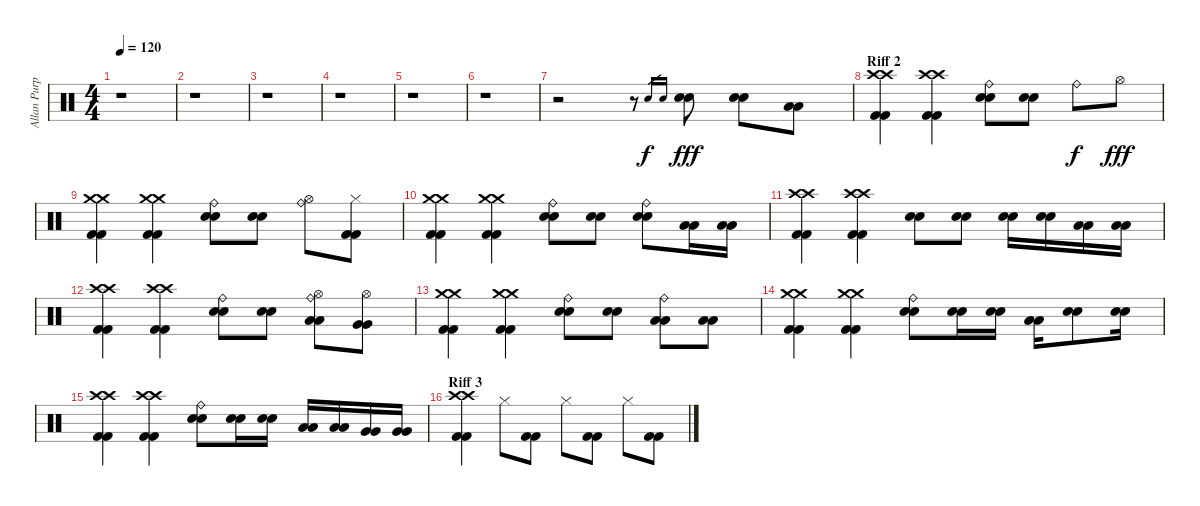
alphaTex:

\track ("Allan Purple" "Allan Purp") {instrument percussion}
\staff {score}
\articulation defaults
\ts (4 4)
\tempo 120
\clef neutral
\ks c
r.1{dy f} |
r.1 |
r.1 |
r.1 |
r.1 |
r.1 |
r.2 r.8 "Electric Snare (hit)".16{gr} "Electric Snare (hit)".16{gr} ("Electric Snare (hit)" "Electric Snare (hit)").8{dy fff} ("Snare (hit) 2" "Snare (hit) 2").8 ("Low Tom (hit)" "Low Tom (hit)").8 |
\section ("" "Riff 2")
("Crash high (hit)" "Crash high (hit)" "Kick (hit) 2" "Kick (hit) 2").4 ("Crash high (hit)" "Crash high (hit)" "Kick (hit) 2" "Kick (hit) 2").4 ("Ride (bell)" "Electric Snare (hit)" "Electric Snare (hit)").8 ("Electric Snare (hit)" "Electric Snare (hit)").8 "Ride (bell)".8{dy f} "Hi-Hat (open)".8{dy fff} |
("Crash medium (hit)" "Crash medium (hit)" "Kick (hit) 2" "Kick (hit) 2").4 ("Crash medium (hit)" "Crash medium (hit)" "Kick (hit) 2" "Kick (hit) 2").4 ("Ride (bell)" "Electric Snare (hit)" "Electric Snare (hit)").8 ("Electric Snare (hit)" "Electric Snare (hit)").8 ("Ride (bell)" "Hi-Hat (open)").8 ("Hi-Hat (closed)" "Kick (hit) 2" "Kick (hit) 2").8 |
("Crash medium (hit)" "Crash medium (hit)" "Kick (hit) 2" "Kick (hit) 2").4 ("Crash medium (hit)" "Crash medium (hit)" "Kick (hit) 2" "Kick (hit) 2").4 ("Ride (bell)" "Electric Snare (hit)" "Electric Snare (hit)").8 ("Electric Snare (hit)" "Electric Snare (hit)").8 ("Ride (bell)" "Electric Snare (hit)" "Electric Snare (hit)").8 ("Low Tom (hit)" "Low Tom (hit)").16 ("Low Tom (hit)" "Low Tom (hit)").16 |
("Crash high (hit)" "Crash high (hit)" "Kick (hit) 2" "Kick (hit) 2").4 ("Crash high (hit)" "Crash high (hit)" "Kick (hit) 2" "Kick (hit) 2").4 ("Electric Snare (hit)" "Electric Snare (hit)").8 ("Electric Snare (hit)" "Electric Snare (hit)").8 ("Electric Snare (hit)" "Electric Snare (hit)").16 ("Electric Snare (hit)" "Electric Snare (hit)").16 ("Low Tom (hit)" "Low Tom (hit)").16 ("Low Tom (hit)" "Low Tom (hit)").16 |
("Crash high (hit)" "Crash high (hit)" "Kick (hit) 2" "Kick (hit) 2").4 ("Crash high (hit)" "Crash high (hit)" "Kick (hit) 2" "Kick (hit) 2").4 ("Ride (bell)" "Electric Snare (hit)" "Electric Snare (hit)").8 ("Electric Snare (hit)" "Electric Snare (hit)").8 ("Ride (bell)" "Hi-Hat (open)" "Low Tom (hit)" "Low Tom (hit)").8 ("Hi-Hat (open)" "Very Low Tom (hit)" "Very Low Tom (hit)").8 |
("Crash medium (hit)" "Crash medium (hit)" "Kick (hit) 2" "Kick (hit) 2").4 ("Crash medium (hit)" "Crash medium (hit)" "Kick (hit) 2" "Kick (hit) 2").4 ("Ride (bell)" "Electric Snare (hit)" "Electric Snare (hit)").8 ("Electric Snare (hit)" "Electric Snare (hit)").8 ("Ride (bell)" "Low Tom (hit)" "Low Tom (hit)").8 ("Low Tom (hit)" "Low Tom (hit)").8 |
("Crash medium (hit)" "Crash medium (hit)" "Kick (hit) 2" "Kick (hit) 2").4 ("Crash medium (hit)" "Crash medium (hit)" "Kick (hit) 2" "Kick (hit) 2").4 ("Ride (bell)" "Electric Snare (hit)" "Electric Snare (hit)").8 ("Electric Snare (hit)" "Electric Snare (hit)").16 ("Electric Snare (hit)" "Electric Snare (hit)").16 ("Low Tom (hit)" "Low Tom (hit)").16 ("Electric Snare (hit)" "Electric Snare (hit)").8 ("Electric Snare (hit)" "Electric Snare (hit)").16 |
("Crash high (hit)" "Crash high (hit)" "Kick (hit) 2" "Kick (hit) 2").4 ("Crash high (hit)" "Crash high (hit)" "Kick (hit) 2" "Kick (hit) 2").4 ("Ride (bell)" "Electric Snare (hit)" "Electric Snare (hit)").8 ("Electric Snare (hit)" "Electric Snare (hit)").16 ("Electric Snare (hit)" "Electric Snare (hit)").16 ("Low Tom (hit)" "Low Tom (hit)").16 ("Low Tom (hit)" "Low Tom (hit)").16 ("Very Low Tom (hit)" "Very Low Tom (hit)").16 ("Very Low Tom (hit)" "Very Low Tom (hit)").16 |
\section ("" "Riff 3")
("Crash high (hit)" "Crash high (hit)" "Kick (hit) 2" "Kick (hit) 2").4 "Hi-Hat (closed)".8 ("Kick (hit) 2" "Kick (hit) 2").8 "Hi-Hat (closed)".8 ("Kick (hit) 2" "Kick (hit) 2").8 "Hi-Hat (closed)".8 ("Kick (hit) 2" "Kick (hit) 2").8
